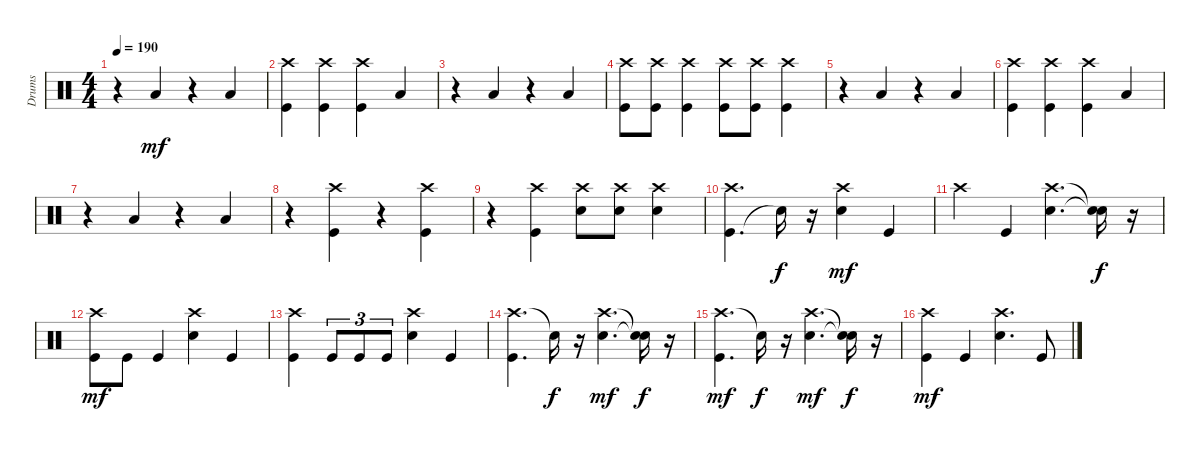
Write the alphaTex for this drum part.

\track ("Drums" "Drums") {instrument percussion}
\staff {score}
\articulation defaults
\ts (4 4)
\tempo 190
\clef neutral
\ks c
r.4{dy mf} "Low Floor Tom (hit)".4 r.4 "Low Floor Tom (hit)".4 |
("Crash high (hit)" "Kick (hit)").4 ("Crash high (hit)" "Kick (hit)").4 ("Crash high (hit)" "Kick (hit)").4 "Low Floor Tom (hit)".4 |
r.4 "Low Floor Tom (hit)".4 r.4 "Low Floor Tom (hit)".4 |
("Kick (hit)" "Crash high (hit)").8 ("Crash high (hit)" "Kick (hit)").8 ("Crash high (hit)" "Kick (hit)").4 ("Crash high (hit)" "Kick (hit)").8 ("Kick (hit)" "Crash high (hit)").8 ("Kick (hit)" "Crash high (hit)").4 |
r.4 "Low Floor Tom (hit)".4 r.4 "Low Floor Tom (hit)".4 |
("Kick (hit)" "Crash high (hit)").4 ("Kick (hit)" "Crash high (hit)").4 ("Kick (hit)" "Crash high (hit)").4 "Low Floor Tom (hit)".4 |
r.4 "Low Floor Tom (hit)".4 r.4 "Low Floor Tom (hit)".4 |
r.4 ("Crash high (hit)" "Kick (hit)").4 r.4 ("Crash high (hit)" "Kick (hit)").4 |
r.4 ("Kick (hit)" "Crash high (hit)").4 ("Snare (hit) 2" "Crash high (hit)").8 ("Snare (hit) 2" "Crash high (hit)").8 ("Snare (hit) 2" "Crash high (hit)").4 |
("Kick (hit)" "Crash high (hit)").4{d} "Snare (hit)"{t}.16{dy f} r.16 ("Snare (hit) 2" "Crash high (hit)").4{dy mf} "Kick (hit)".4 |
"Crash high (hit)".4 "Kick (hit)".4 ("Snare (hit) 2" "Crash high (hit)").4{d} ("Snare (hit)"{t} "Snare (hit)"{t}).16{dy f} r.16 |
("Crash high (hit)" "Kick (hit)").8{dy mf} "Kick (hit)".8 "Kick (hit)".4 ("Snare (hit) 2" "Crash high (hit)").4 "Kick (hit)".4 |
("Crash high (hit)" "Kick (hit)").4 "Kick (hit)".8{tu (3 2)} "Kick (hit)".8{tu (3 2)} "Kick (hit)".8{tu (3 2)} ("Snare (hit) 2" "Crash high (hit)").4 "Kick (hit)".4 |
("Crash high (hit)" "Kick (hit)").4{d} "Snare (hit)"{t}.16{dy f} r.16 ("Snare (hit) 2" "Crash high (hit)").4{d dy mf} ("Snare (hit)"{t} "Snare (hit)"{t}).16{dy f} r.16 |
("Crash high (hit)" "Kick (hit)").4{d dy mf} "Snare (hit)"{t}.16{dy f} r.16 ("Snare (hit) 2" "Crash high (hit)").4{d dy mf} ("Snare (hit)"{t} "Snare (hit)"{t}).16{dy f} r.16 |
("Kick (hit)" "Crash high (hit)").4{dy mf} "Kick (hit)".4 ("Snare (hit) 2" "Crash high (hit)").4{d} "Kick (hit)".8
